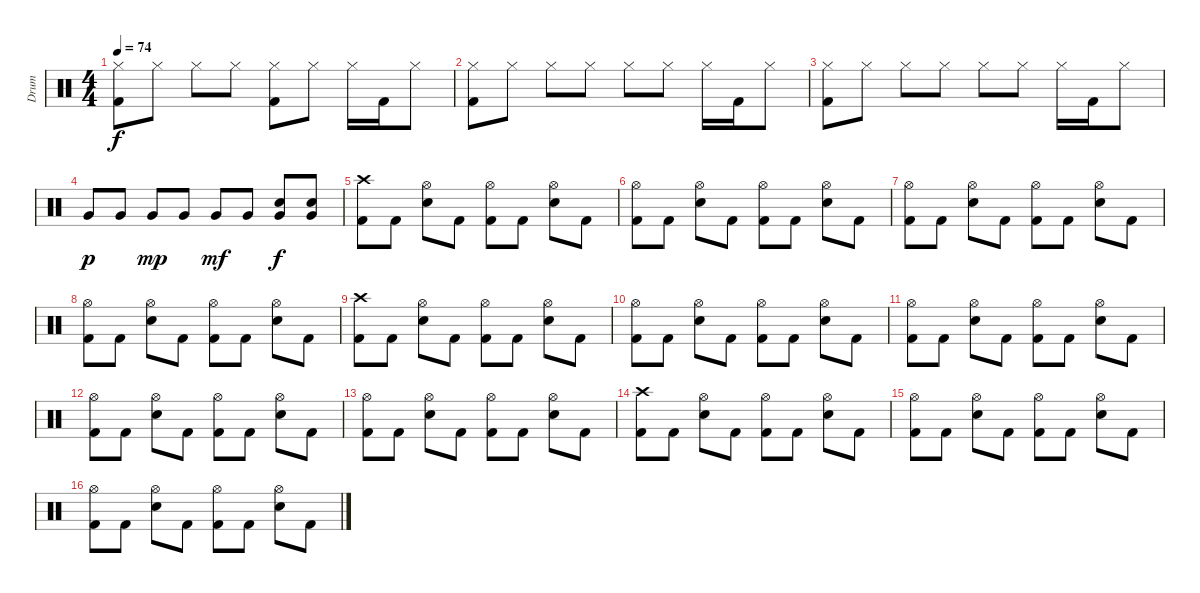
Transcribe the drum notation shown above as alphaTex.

\track ("Drum" "Drum") {instrument percussion}
\staff {score}
\articulation defaults
\ts (4 4)
\tempo 74
\clef neutral
\ks c
("Kick (hit) 2" "Hi-Hat (closed)").8{dy f} "Hi-Hat (closed)".8 "Hi-Hat (closed)".8 "Hi-Hat (closed)".8 ("Hi-Hat (closed)" "Kick (hit) 2").8 "Hi-Hat (closed)".8 "Hi-Hat (closed)".16 "Kick (hit) 2".16 "Hi-Hat (closed)".8 |
("Kick (hit) 2" "Hi-Hat (closed)").8 "Hi-Hat (closed)".8 "Hi-Hat (closed)".8 "Hi-Hat (closed)".8 "Hi-Hat (closed)".8 "Hi-Hat (closed)".8 "Hi-Hat (closed)".16 "Kick (hit) 2".16 "Hi-Hat (closed)".8 |
("Kick (hit) 2" "Hi-Hat (closed)").8 "Hi-Hat (closed)".8 "Hi-Hat (closed)".8 "Hi-Hat (closed)".8 "Hi-Hat (closed)".8 "Hi-Hat (closed)".8 "Hi-Hat (closed)".16 "Kick (hit) 2".16 "Hi-Hat (closed)".8 |
"Very Low Tom (hit)".8{dy p} "Very Low Tom (hit)".8 "Very Low Tom (hit)".8{dy mp} "Very Low Tom (hit)".8 "Very Low Tom (hit)".8{dy mf} "Very Low Tom (hit)".8 ("Snare (hit) 2" "Very Low Tom (hit)").8{dy f} ("Snare (hit) 2" "Very Low Tom (hit)").8 |
("Kick (hit) 2" "Crash high (hit)").8 "Kick (hit) 2".8 ("Snare (hit) 2" "Hi-Hat (open)").8 "Kick (hit) 2".8 ("Kick (hit) 2" "Hi-Hat (open)").8 "Kick (hit) 2".8 ("Snare (hit) 2" "Hi-Hat (open)").8 "Kick (hit) 2".8 |
("Hi-Hat (open)" "Kick (hit) 2").8 "Kick (hit) 2".8 ("Snare (hit) 2" "Hi-Hat (open)").8 "Kick (hit) 2".8 ("Kick (hit) 2" "Hi-Hat (open)").8 "Kick (hit) 2".8 ("Snare (hit) 2" "Hi-Hat (open)").8 "Kick (hit) 2".8 |
("Hi-Hat (open)" "Kick (hit) 2").8 "Kick (hit) 2".8 ("Snare (hit) 2" "Hi-Hat (open)").8 "Kick (hit) 2".8 ("Kick (hit) 2" "Hi-Hat (open)").8 "Kick (hit) 2".8 ("Snare (hit) 2" "Hi-Hat (open)").8 "Kick (hit) 2".8 |
("Hi-Hat (open)" "Kick (hit) 2").8 "Kick (hit) 2".8 ("Snare (hit) 2" "Hi-Hat (open)").8 "Kick (hit) 2".8 ("Kick (hit) 2" "Hi-Hat (open)").8 "Kick (hit) 2".8 ("Snare (hit) 2" "Hi-Hat (open)").8 "Kick (hit) 2".8 |
("Kick (hit) 2" "Crash high (hit)").8 "Kick (hit) 2".8 ("Snare (hit) 2" "Hi-Hat (open)").8 "Kick (hit) 2".8 ("Kick (hit) 2" "Hi-Hat (open)").8 "Kick (hit) 2".8 ("Snare (hit) 2" "Hi-Hat (open)").8 "Kick (hit) 2".8 |
("Hi-Hat (open)" "Kick (hit) 2").8 "Kick (hit) 2".8 ("Snare (hit) 2" "Hi-Hat (open)").8 "Kick (hit) 2".8 ("Kick (hit) 2" "Hi-Hat (open)").8 "Kick (hit) 2".8 ("Snare (hit) 2" "Hi-Hat (open)").8 "Kick (hit) 2".8 |
("Hi-Hat (open)" "Kick (hit) 2").8 "Kick (hit) 2".8 ("Snare (hit) 2" "Hi-Hat (open)").8 "Kick (hit) 2".8 ("Kick (hit) 2" "Hi-Hat (open)").8 "Kick (hit) 2".8 ("Snare (hit) 2" "Hi-Hat (open)").8 "Kick (hit) 2".8 |
("Hi-Hat (open)" "Kick (hit) 2").8 "Kick (hit) 2".8 ("Snare (hit) 2" "Hi-Hat (open)").8 "Kick (hit) 2".8 ("Kick (hit) 2" "Hi-Hat (open)").8 "Kick (hit) 2".8 ("Snare (hit) 2" "Hi-Hat (open)").8 "Kick (hit) 2".8 |
("Hi-Hat (open)" "Kick (hit) 2").8 "Kick (hit) 2".8 ("Snare (hit) 2" "Hi-Hat (open)").8 "Kick (hit) 2".8 ("Kick (hit) 2" "Hi-Hat (open)").8 "Kick (hit) 2".8 ("Snare (hit) 2" "Hi-Hat (open)").8 "Kick (hit) 2".8 |
("Kick (hit) 2" "Crash high (hit)").8 "Kick (hit) 2".8 ("Snare (hit) 2" "Hi-Hat (open)").8 "Kick (hit) 2".8 ("Kick (hit) 2" "Hi-Hat (open)").8 "Kick (hit) 2".8 ("Snare (hit) 2" "Hi-Hat (open)").8 "Kick (hit) 2".8 |
("Hi-Hat (open)" "Kick (hit) 2").8 "Kick (hit) 2".8 ("Snare (hit) 2" "Hi-Hat (open)").8 "Kick (hit) 2".8 ("Kick (hit) 2" "Hi-Hat (open)").8 "Kick (hit) 2".8 ("Snare (hit) 2" "Hi-Hat (open)").8 "Kick (hit) 2".8 |
("Hi-Hat (open)" "Kick (hit) 2").8 "Kick (hit) 2".8 ("Snare (hit) 2" "Hi-Hat (open)").8 "Kick (hit) 2".8 ("Kick (hit) 2" "Hi-Hat (open)").8 "Kick (hit) 2".8 ("Snare (hit) 2" "Hi-Hat (open)").8 "Kick (hit) 2".8
